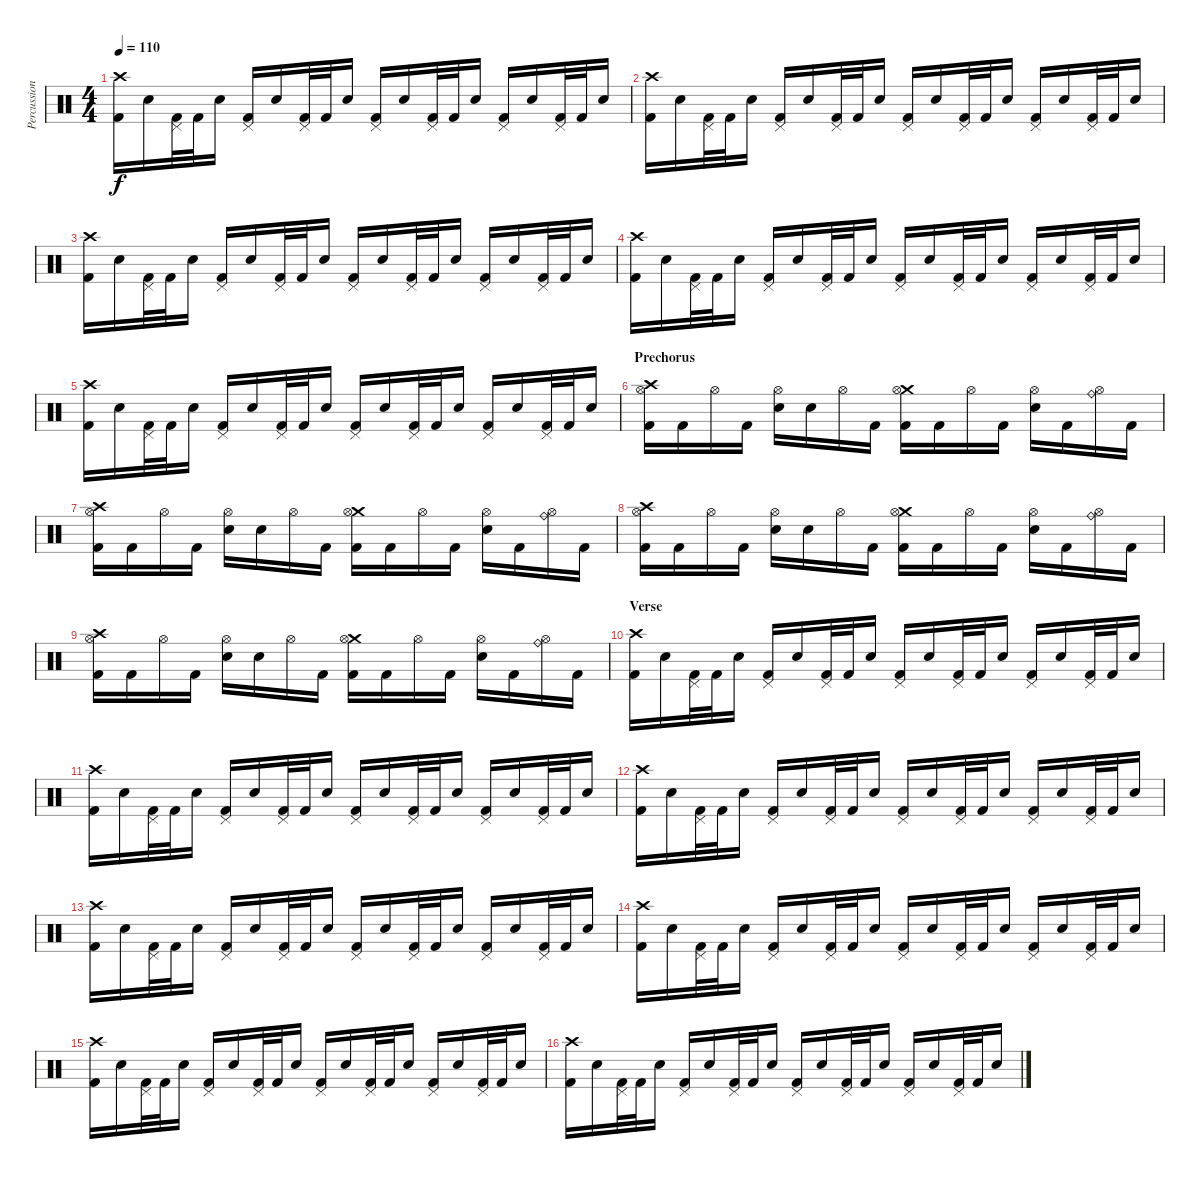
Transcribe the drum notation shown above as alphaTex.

\track ("Percussion" "Percussion") {instrument percussion}
\staff {score}
\articulation defaults
\ts (4 4)
\tempo 110
\clef neutral
\ks c
("Crash high (hit)" "Kick (hit) 2").16{dy f} "Snare (hit) 2".16 ("Pedal Hi-Hat (hit)" "Kick (hit) 2").32 "Kick (hit) 2".32 "Snare (hit) 2".16 ("Pedal Hi-Hat (hit)" "Kick (hit) 2").16 "Snare (hit) 2".16 ("Pedal Hi-Hat (hit)" "Kick (hit) 2").32 "Kick (hit) 2".32 "Snare (hit) 2".16 ("Pedal Hi-Hat (hit)" "Kick (hit) 2").16 "Snare (hit) 2".16 ("Pedal Hi-Hat (hit)" "Kick (hit) 2").32 "Kick (hit) 2".32 "Snare (hit) 2".16 ("Pedal Hi-Hat (hit)" "Kick (hit) 2").16 "Snare (hit) 2".16 ("Pedal Hi-Hat (hit)" "Kick (hit) 2").32 "Kick (hit) 2".32 "Snare (hit) 2".16 |
("Crash high (hit)" "Kick (hit) 2").16 "Snare (hit) 2".16 ("Pedal Hi-Hat (hit)" "Kick (hit) 2").32 "Kick (hit) 2".32 "Snare (hit) 2".16 ("Pedal Hi-Hat (hit)" "Kick (hit) 2").16 "Snare (hit) 2".16 ("Pedal Hi-Hat (hit)" "Kick (hit) 2").32 "Kick (hit) 2".32 "Snare (hit) 2".16 ("Pedal Hi-Hat (hit)" "Kick (hit) 2").16 "Snare (hit) 2".16 ("Pedal Hi-Hat (hit)" "Kick (hit) 2").32 "Kick (hit) 2".32 "Snare (hit) 2".16 ("Pedal Hi-Hat (hit)" "Kick (hit) 2").16 "Snare (hit) 2".16 ("Pedal Hi-Hat (hit)" "Kick (hit) 2").32 "Kick (hit) 2".32 "Snare (hit) 2".16 |
("Crash high (hit)" "Kick (hit) 2").16 "Snare (hit) 2".16 ("Pedal Hi-Hat (hit)" "Kick (hit) 2").32 "Kick (hit) 2".32 "Snare (hit) 2".16 ("Pedal Hi-Hat (hit)" "Kick (hit) 2").16 "Snare (hit) 2".16 ("Pedal Hi-Hat (hit)" "Kick (hit) 2").32 "Kick (hit) 2".32 "Snare (hit) 2".16 ("Pedal Hi-Hat (hit)" "Kick (hit) 2").16 "Snare (hit) 2".16 ("Pedal Hi-Hat (hit)" "Kick (hit) 2").32 "Kick (hit) 2".32 "Snare (hit) 2".16 ("Pedal Hi-Hat (hit)" "Kick (hit) 2").16 "Snare (hit) 2".16 ("Pedal Hi-Hat (hit)" "Kick (hit) 2").32 "Kick (hit) 2".32 "Snare (hit) 2".16 |
("Crash high (hit)" "Kick (hit) 2").16 "Snare (hit) 2".16 ("Pedal Hi-Hat (hit)" "Kick (hit) 2").32 "Kick (hit) 2".32 "Snare (hit) 2".16 ("Pedal Hi-Hat (hit)" "Kick (hit) 2").16 "Snare (hit) 2".16 ("Pedal Hi-Hat (hit)" "Kick (hit) 2").32 "Kick (hit) 2".32 "Snare (hit) 2".16 ("Pedal Hi-Hat (hit)" "Kick (hit) 2").16 "Snare (hit) 2".16 ("Pedal Hi-Hat (hit)" "Kick (hit) 2").32 "Kick (hit) 2".32 "Snare (hit) 2".16 ("Pedal Hi-Hat (hit)" "Kick (hit) 2").16 "Snare (hit) 2".16 ("Pedal Hi-Hat (hit)" "Kick (hit) 2").32 "Kick (hit) 2".32 "Snare (hit) 2".16 |
("Crash high (hit)" "Kick (hit) 2").16 "Snare (hit) 2".16 ("Pedal Hi-Hat (hit)" "Kick (hit) 2").32 "Kick (hit) 2".32 "Snare (hit) 2".16 ("Pedal Hi-Hat (hit)" "Kick (hit) 2").16 "Snare (hit) 2".16 ("Pedal Hi-Hat (hit)" "Kick (hit) 2").32 "Kick (hit) 2".32 "Snare (hit) 2".16 ("Pedal Hi-Hat (hit)" "Kick (hit) 2").16 "Snare (hit) 2".16 ("Pedal Hi-Hat (hit)" "Kick (hit) 2").32 "Kick (hit) 2".32 "Snare (hit) 2".16 ("Pedal Hi-Hat (hit)" "Kick (hit) 2").16 "Snare (hit) 2".16 ("Pedal Hi-Hat (hit)" "Kick (hit) 2").32 "Kick (hit) 2".32 "Snare (hit) 2".16 |
\section ("" "Prechorus")
("Crash high (hit)" "Hi-Hat (open)" "Kick (hit) 2").16 "Kick (hit) 2".16 "Hi-Hat (open)".16 "Kick (hit) 2".16 ("Hi-Hat (open)" "Snare (hit) 2").16 "Snare (hit) 2".16 "Hi-Hat (open)".16 "Kick (hit) 2".16 ("Crash medium (hit)" "Hi-Hat (open)" "Kick (hit) 2").16 "Kick (hit) 2".16 "Hi-Hat (open)".16 "Kick (hit) 2".16 ("Hi-Hat (open)" "Snare (hit) 2").16 "Kick (hit) 2".16 ("Hi-Hat (open)" "Ride (bell)").16 "Kick (hit) 2".16 |
("Crash high (hit)" "Hi-Hat (open)" "Kick (hit) 2").16 "Kick (hit) 2".16 "Hi-Hat (open)".16 "Kick (hit) 2".16 ("Hi-Hat (open)" "Snare (hit) 2").16 "Snare (hit) 2".16 "Hi-Hat (open)".16 "Kick (hit) 2".16 ("Crash medium (hit)" "Hi-Hat (open)" "Kick (hit) 2").16 "Kick (hit) 2".16 "Hi-Hat (open)".16 "Kick (hit) 2".16 ("Hi-Hat (open)" "Snare (hit) 2").16 "Kick (hit) 2".16 ("Hi-Hat (open)" "Ride (bell)").16 "Kick (hit) 2".16 |
("Crash high (hit)" "Hi-Hat (open)" "Kick (hit) 2").16 "Kick (hit) 2".16 "Hi-Hat (open)".16 "Kick (hit) 2".16 ("Hi-Hat (open)" "Snare (hit) 2").16 "Snare (hit) 2".16 "Hi-Hat (open)".16 "Kick (hit) 2".16 ("Crash medium (hit)" "Hi-Hat (open)" "Kick (hit) 2").16 "Kick (hit) 2".16 "Hi-Hat (open)".16 "Kick (hit) 2".16 ("Hi-Hat (open)" "Snare (hit) 2").16 "Kick (hit) 2".16 ("Hi-Hat (open)" "Ride (bell)").16 "Kick (hit) 2".16 |
("Crash high (hit)" "Hi-Hat (open)" "Kick (hit) 2").16 "Kick (hit) 2".16 "Hi-Hat (open)".16 "Kick (hit) 2".16 ("Hi-Hat (open)" "Snare (hit) 2").16 "Snare (hit) 2".16 "Hi-Hat (open)".16 "Kick (hit) 2".16 ("Crash medium (hit)" "Hi-Hat (open)" "Kick (hit) 2").16 "Kick (hit) 2".16 "Hi-Hat (open)".16 "Kick (hit) 2".16 ("Hi-Hat (open)" "Snare (hit) 2").16 "Kick (hit) 2".16 ("Hi-Hat (open)" "Ride (bell)").16 "Kick (hit) 2".16 |
\section ("" "Verse")
("Crash high (hit)" "Kick (hit) 2").16 "Snare (hit) 2".16 ("Pedal Hi-Hat (hit)" "Kick (hit) 2").32 "Kick (hit) 2".32 "Snare (hit) 2".16 ("Pedal Hi-Hat (hit)" "Kick (hit) 2").16 "Snare (hit) 2".16 ("Pedal Hi-Hat (hit)" "Kick (hit) 2").32 "Kick (hit) 2".32 "Snare (hit) 2".16 ("Pedal Hi-Hat (hit)" "Kick (hit) 2").16 "Snare (hit) 2".16 ("Pedal Hi-Hat (hit)" "Kick (hit) 2").32 "Kick (hit) 2".32 "Snare (hit) 2".16 ("Pedal Hi-Hat (hit)" "Kick (hit) 2").16 "Snare (hit) 2".16 ("Pedal Hi-Hat (hit)" "Kick (hit) 2").32 "Kick (hit) 2".32 "Snare (hit) 2".16 |
("Crash high (hit)" "Kick (hit) 2").16 "Snare (hit) 2".16 ("Pedal Hi-Hat (hit)" "Kick (hit) 2").32 "Kick (hit) 2".32 "Snare (hit) 2".16 ("Pedal Hi-Hat (hit)" "Kick (hit) 2").16 "Snare (hit) 2".16 ("Pedal Hi-Hat (hit)" "Kick (hit) 2").32 "Kick (hit) 2".32 "Snare (hit) 2".16 ("Pedal Hi-Hat (hit)" "Kick (hit) 2").16 "Snare (hit) 2".16 ("Pedal Hi-Hat (hit)" "Kick (hit) 2").32 "Kick (hit) 2".32 "Snare (hit) 2".16 ("Pedal Hi-Hat (hit)" "Kick (hit) 2").16 "Snare (hit) 2".16 ("Pedal Hi-Hat (hit)" "Kick (hit) 2").32 "Kick (hit) 2".32 "Snare (hit) 2".16 |
("Crash high (hit)" "Kick (hit) 2").16 "Snare (hit) 2".16 ("Pedal Hi-Hat (hit)" "Kick (hit) 2").32 "Kick (hit) 2".32 "Snare (hit) 2".16 ("Pedal Hi-Hat (hit)" "Kick (hit) 2").16 "Snare (hit) 2".16 ("Pedal Hi-Hat (hit)" "Kick (hit) 2").32 "Kick (hit) 2".32 "Snare (hit) 2".16 ("Pedal Hi-Hat (hit)" "Kick (hit) 2").16 "Snare (hit) 2".16 ("Pedal Hi-Hat (hit)" "Kick (hit) 2").32 "Kick (hit) 2".32 "Snare (hit) 2".16 ("Pedal Hi-Hat (hit)" "Kick (hit) 2").16 "Snare (hit) 2".16 ("Pedal Hi-Hat (hit)" "Kick (hit) 2").32 "Kick (hit) 2".32 "Snare (hit) 2".16 |
("Crash high (hit)" "Kick (hit) 2").16 "Snare (hit) 2".16 ("Pedal Hi-Hat (hit)" "Kick (hit) 2").32 "Kick (hit) 2".32 "Snare (hit) 2".16 ("Pedal Hi-Hat (hit)" "Kick (hit) 2").16 "Snare (hit) 2".16 ("Pedal Hi-Hat (hit)" "Kick (hit) 2").32 "Kick (hit) 2".32 "Snare (hit) 2".16 ("Pedal Hi-Hat (hit)" "Kick (hit) 2").16 "Snare (hit) 2".16 ("Pedal Hi-Hat (hit)" "Kick (hit) 2").32 "Kick (hit) 2".32 "Snare (hit) 2".16 ("Pedal Hi-Hat (hit)" "Kick (hit) 2").16 "Snare (hit) 2".16 ("Pedal Hi-Hat (hit)" "Kick (hit) 2").32 "Kick (hit) 2".32 "Snare (hit) 2".16 |
("Crash high (hit)" "Kick (hit) 2").16 "Snare (hit) 2".16 ("Pedal Hi-Hat (hit)" "Kick (hit) 2").32 "Kick (hit) 2".32 "Snare (hit) 2".16 ("Pedal Hi-Hat (hit)" "Kick (hit) 2").16 "Snare (hit) 2".16 ("Pedal Hi-Hat (hit)" "Kick (hit) 2").32 "Kick (hit) 2".32 "Snare (hit) 2".16 ("Pedal Hi-Hat (hit)" "Kick (hit) 2").16 "Snare (hit) 2".16 ("Pedal Hi-Hat (hit)" "Kick (hit) 2").32 "Kick (hit) 2".32 "Snare (hit) 2".16 ("Pedal Hi-Hat (hit)" "Kick (hit) 2").16 "Snare (hit) 2".16 ("Pedal Hi-Hat (hit)" "Kick (hit) 2").32 "Kick (hit) 2".32 "Snare (hit) 2".16 |
("Crash high (hit)" "Kick (hit) 2").16 "Snare (hit) 2".16 ("Pedal Hi-Hat (hit)" "Kick (hit) 2").32 "Kick (hit) 2".32 "Snare (hit) 2".16 ("Pedal Hi-Hat (hit)" "Kick (hit) 2").16 "Snare (hit) 2".16 ("Pedal Hi-Hat (hit)" "Kick (hit) 2").32 "Kick (hit) 2".32 "Snare (hit) 2".16 ("Pedal Hi-Hat (hit)" "Kick (hit) 2").16 "Snare (hit) 2".16 ("Pedal Hi-Hat (hit)" "Kick (hit) 2").32 "Kick (hit) 2".32 "Snare (hit) 2".16 ("Pedal Hi-Hat (hit)" "Kick (hit) 2").16 "Snare (hit) 2".16 ("Pedal Hi-Hat (hit)" "Kick (hit) 2").32 "Kick (hit) 2".32 "Snare (hit) 2".16 |
("Crash high (hit)" "Kick (hit) 2").16 "Snare (hit) 2".16 ("Pedal Hi-Hat (hit)" "Kick (hit) 2").32 "Kick (hit) 2".32 "Snare (hit) 2".16 ("Pedal Hi-Hat (hit)" "Kick (hit) 2").16 "Snare (hit) 2".16 ("Pedal Hi-Hat (hit)" "Kick (hit) 2").32 "Kick (hit) 2".32 "Snare (hit) 2".16 ("Pedal Hi-Hat (hit)" "Kick (hit) 2").16 "Snare (hit) 2".16 ("Pedal Hi-Hat (hit)" "Kick (hit) 2").32 "Kick (hit) 2".32 "Snare (hit) 2".16 ("Pedal Hi-Hat (hit)" "Kick (hit) 2").16 "Snare (hit) 2".16 ("Pedal Hi-Hat (hit)" "Kick (hit) 2").32 "Kick (hit) 2".32 "Snare (hit) 2".16
